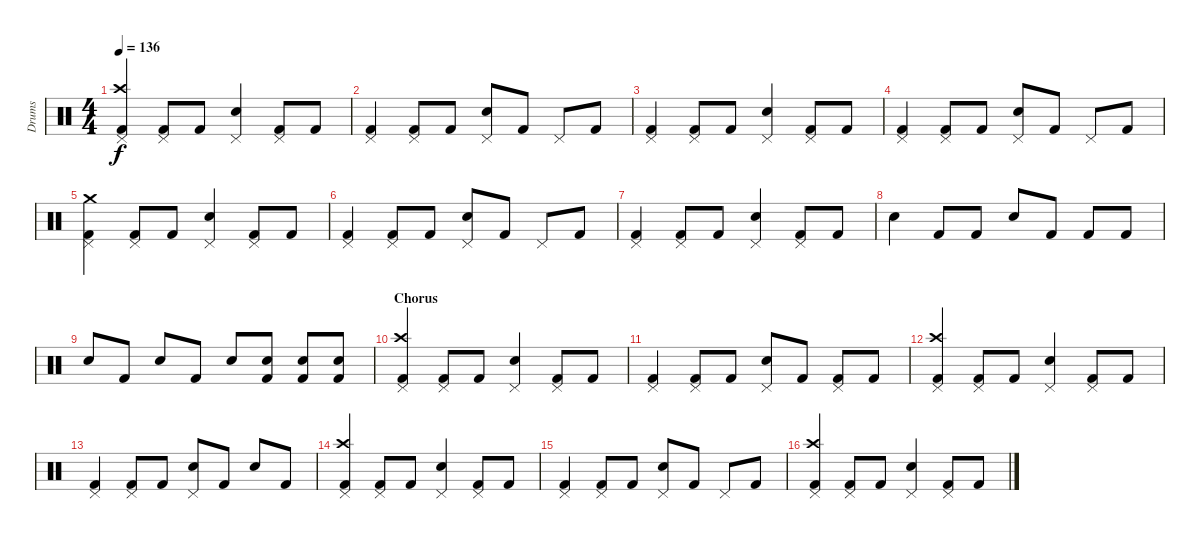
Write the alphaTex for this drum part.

\track ("Drums" "Drums") {instrument percussion}
\staff {score}
\articulation defaults
\ts (4 4)
\tempo 136
\clef neutral
\ks c
("Pedal Hi-Hat (hit)" "Crash high (hit)" "Kick (hit) 2").4{dy f} ("Pedal Hi-Hat (hit)" "Kick (hit) 2").8 "Kick (hit) 2".8 ("Pedal Hi-Hat (hit)" "Snare (hit) 2").4 ("Pedal Hi-Hat (hit)" "Kick (hit) 2").8 "Kick (hit) 2".8 |
("Pedal Hi-Hat (hit)" "Kick (hit) 2").4 ("Pedal Hi-Hat (hit)" "Kick (hit) 2").8 "Kick (hit) 2".8 ("Pedal Hi-Hat (hit)" "Snare (hit) 2").8 "Kick (hit) 2".8 "Pedal Hi-Hat (hit)".8 "Kick (hit) 2".8 |
("Pedal Hi-Hat (hit)" "Kick (hit) 2").4 ("Pedal Hi-Hat (hit)" "Kick (hit) 2").8 "Kick (hit) 2".8 ("Pedal Hi-Hat (hit)" "Snare (hit) 2").4 ("Pedal Hi-Hat (hit)" "Kick (hit) 2").8 "Kick (hit) 2".8 |
("Pedal Hi-Hat (hit)" "Kick (hit) 2").4 ("Pedal Hi-Hat (hit)" "Kick (hit) 2").8 "Kick (hit) 2".8 ("Pedal Hi-Hat (hit)" "Snare (hit) 2").8 "Kick (hit) 2".8 "Pedal Hi-Hat (hit)".8 "Kick (hit) 2".8 |
("Pedal Hi-Hat (hit)" "Crash medium (hit)" "Kick (hit) 2").4 ("Pedal Hi-Hat (hit)" "Kick (hit) 2").8 "Kick (hit) 2".8 ("Pedal Hi-Hat (hit)" "Snare (hit) 2").4 ("Pedal Hi-Hat (hit)" "Kick (hit) 2").8 "Kick (hit) 2".8 |
("Pedal Hi-Hat (hit)" "Kick (hit) 2").4 ("Pedal Hi-Hat (hit)" "Kick (hit) 2").8 "Kick (hit) 2".8 ("Pedal Hi-Hat (hit)" "Snare (hit) 2").8 "Kick (hit) 2".8 "Pedal Hi-Hat (hit)".8 "Kick (hit) 2".8 |
("Pedal Hi-Hat (hit)" "Kick (hit) 2").4 ("Pedal Hi-Hat (hit)" "Kick (hit) 2").8 "Kick (hit) 2".8 ("Pedal Hi-Hat (hit)" "Snare (hit) 2").4 ("Pedal Hi-Hat (hit)" "Kick (hit) 2").8 "Kick (hit) 2".8 |
"Snare (hit) 2".4 "Kick (hit) 2".8 "Kick (hit) 2".8 "Snare (hit) 2".8 "Kick (hit) 2".8 "Kick (hit) 2".8 "Kick (hit) 2".8 |
"Snare (hit) 2".8 "Kick (hit) 2".8 "Snare (hit) 2".8 "Kick (hit) 2".8 "Snare (hit) 2".8 ("Snare (hit) 2" "Kick (hit) 2").8 ("Snare (hit) 2" "Kick (hit) 2").8 ("Snare (hit) 2" "Kick (hit) 2").8 |
\section ("" "Chorus")
("Pedal Hi-Hat (hit)" "Crash high (hit)" "Kick (hit) 2").4 ("Pedal Hi-Hat (hit)" "Kick (hit) 2").8 "Kick (hit) 2".8 ("Pedal Hi-Hat (hit)" "Snare (hit) 2").4 ("Pedal Hi-Hat (hit)" "Kick (hit) 2").8 "Kick (hit) 2".8 |
("Pedal Hi-Hat (hit)" "Kick (hit) 2").4 ("Pedal Hi-Hat (hit)" "Kick (hit) 2").8 "Kick (hit) 2".8 ("Pedal Hi-Hat (hit)" "Snare (hit) 2").8 "Kick (hit) 2".8 ("Pedal Hi-Hat (hit)" "Kick (hit) 2").8 "Kick (hit) 2".8 |
("Pedal Hi-Hat (hit)" "Crash high (hit)" "Kick (hit) 2").4 ("Pedal Hi-Hat (hit)" "Kick (hit) 2").8 "Kick (hit) 2".8 ("Pedal Hi-Hat (hit)" "Snare (hit) 2").4 ("Pedal Hi-Hat (hit)" "Kick (hit) 2").8 "Kick (hit) 2".8 |
("Pedal Hi-Hat (hit)" "Kick (hit) 2").4 ("Pedal Hi-Hat (hit)" "Kick (hit) 2").8 "Kick (hit) 2".8 ("Pedal Hi-Hat (hit)" "Snare (hit) 2").8 "Kick (hit) 2".8 "Snare (hit) 2".8 "Kick (hit) 2".8 |
("Pedal Hi-Hat (hit)" "Crash high (hit)" "Kick (hit) 2").4 ("Pedal Hi-Hat (hit)" "Kick (hit) 2").8 "Kick (hit) 2".8 ("Pedal Hi-Hat (hit)" "Snare (hit) 2").4 ("Pedal Hi-Hat (hit)" "Kick (hit) 2").8 "Kick (hit) 2".8 |
("Pedal Hi-Hat (hit)" "Kick (hit) 2").4 ("Pedal Hi-Hat (hit)" "Kick (hit) 2").8 "Kick (hit) 2".8 ("Pedal Hi-Hat (hit)" "Snare (hit) 2").8 "Kick (hit) 2".8 "Pedal Hi-Hat (hit)".8 "Kick (hit) 2".8 |
("Pedal Hi-Hat (hit)" "Crash high (hit)" "Kick (hit) 2").4 ("Pedal Hi-Hat (hit)" "Kick (hit) 2").8 "Kick (hit) 2".8 ("Pedal Hi-Hat (hit)" "Snare (hit) 2").4 ("Pedal Hi-Hat (hit)" "Kick (hit) 2").8 "Kick (hit) 2".8
